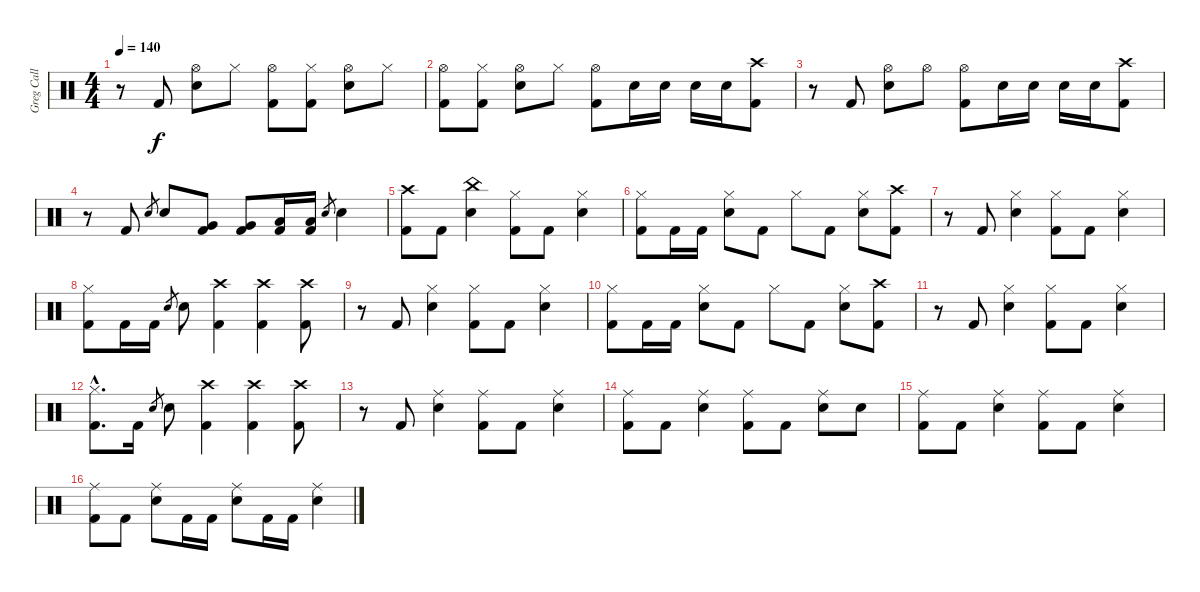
\track ("Greg Call (Drums)" "Greg Call ") {instrument percussion}
\staff {score}
\articulation defaults
\ts (4 4)
\tempo 140
\clef neutral
\ks c
r.8{dy f} "Kick (hit) 2".8 ("Hi-Hat (open)" "Snare (hit) 2").8 "Hi-Hat (closed)".8 ("Hi-Hat (open)" "Kick (hit) 2").8 ("Hi-Hat (closed)" "Kick (hit) 2").8 ("Hi-Hat (open)" "Snare (hit) 2").8 "Hi-Hat (closed)".8 |
("Hi-Hat (open)" "Kick (hit) 2").8 ("Hi-Hat (closed)" "Kick (hit) 2").8 ("Hi-Hat (open)" "Snare (hit) 2").8 "Hi-Hat (closed)".8 ("Hi-Hat (open)" "Kick (hit) 2").8 "Snare (hit) 2".16 "Snare (hit) 2".16 "Snare (hit) 2".16 "Snare (hit) 2".16 ("Crash high (hit)" "Kick (hit) 2").8 |
r.8 "Kick (hit) 2".8 ("Hi-Hat (open)" "Snare (hit) 2").8 "Hi-Hat (open)".8 ("Hi-Hat (open)" "Kick (hit) 2").8 "Snare (hit) 2".16 "Snare (hit) 2".16 "Snare (hit) 2".16 "Snare (hit) 2".16 ("Crash high (hit)" "Kick (hit) 2").8 |
r.8 "Kick (hit) 2".8 "Snare (hit) 2".8{gr} "Snare (hit) 2".8 ("Very Low Tom (hit)" "Kick (hit) 2").8 ("Very Low Tom (hit)" "Kick (hit) 2").8 ("Low Floor Tom (hit)" "Kick (hit) 2").16 ("Low Floor Tom (hit)" "Kick (hit) 2").16 "Snare (hit) 2".8{gr} "Snare (hit) 2".4 |
("Crash high (hit)" "Kick (hit) 2").8 "Kick (hit) 2".8 ("China (hit)" "Snare (hit) 2").4 ("Hi-Hat (closed)" "Kick (hit) 2").8 "Kick (hit) 2".8 ("Hi-Hat (closed)" "Snare (hit) 2").4 |
("Hi-Hat (closed)" "Kick (hit) 2").8 "Kick (hit) 2".16 "Kick (hit) 2".16 ("Hi-Hat (closed)" "Snare (hit) 2").8 "Kick (hit) 2".8 "Hi-Hat (closed)".8 "Kick (hit) 2".8 ("Hi-Hat (closed)" "Snare (hit) 2").8 ("Crash high (hit)" "Kick (hit) 2").8 |
r.8 "Kick (hit) 2".8 ("Hi-Hat (closed)" "Snare (hit) 2").4 ("Hi-Hat (closed)" "Kick (hit) 2").8 "Kick (hit) 2".8 ("Hi-Hat (closed)" "Snare (hit) 2").4 |
("Hi-Hat (closed)" "Kick (hit) 2").8 "Kick (hit) 2".16 "Kick (hit) 2".16 "Snare (hit) 2".8{gr} "Snare (hit) 2".8 ("Crash high (hit)" "Kick (hit) 2").4 ("Crash high (hit)" "Kick (hit) 2").4 ("Crash high (hit)" "Kick (hit) 2").8 |
r.8 "Kick (hit) 2".8 ("Hi-Hat (closed)" "Snare (hit) 2").4 ("Hi-Hat (closed)" "Kick (hit) 2").8 "Kick (hit) 2".8 ("Hi-Hat (closed)" "Snare (hit) 2").4 |
("Hi-Hat (closed)" "Kick (hit) 2").8 "Kick (hit) 2".16 "Kick (hit) 2".16 ("Hi-Hat (closed)" "Snare (hit) 2").8 "Kick (hit) 2".8 "Hi-Hat (closed)".8 "Kick (hit) 2".8 ("Hi-Hat (closed)" "Snare (hit) 2").8 ("Crash high (hit)" "Kick (hit) 2").8 |
r.8 "Kick (hit) 2".8 ("Hi-Hat (closed)" "Snare (hit) 2").4 ("Hi-Hat (closed)" "Kick (hit) 2").8 "Kick (hit) 2".8 ("Hi-Hat (closed)" "Snare (hit) 2").4 |
("Hi-Hat (closed)"{hac} "Kick (hit) 2"{hac}).8{d} "Kick (hit) 2".16 "Snare (hit) 2".8{gr} "Snare (hit) 2".8 ("Crash high (hit)" "Kick (hit) 2").4 ("Crash high (hit)" "Kick (hit) 2").4 ("Crash high (hit)" "Kick (hit) 2").8 |
r.8 "Kick (hit) 2".8 ("Ride (middle)" "Snare (hit) 2").4 ("Ride (middle)" "Kick (hit) 2").8 "Kick (hit) 2".8 ("Ride (middle)" "Snare (hit) 2").4 |
("Ride (middle)" "Kick (hit) 2").8 "Kick (hit) 2".8 ("Ride (middle)" "Snare (hit) 2").4 ("Ride (middle)" "Kick (hit) 2").8 "Kick (hit) 2".8 ("Ride (middle)" "Snare (hit) 2").8 "Snare (hit) 2".8 |
("Ride (middle)" "Kick (hit) 2").8 "Kick (hit) 2".8 ("Ride (middle)" "Snare (hit) 2").4 ("Ride (middle)" "Kick (hit) 2").8 "Kick (hit) 2".8 ("Ride (middle)" "Snare (hit) 2").4 |
("Ride (middle)" "Kick (hit) 2").8 "Kick (hit) 2".8 ("Ride (middle)" "Snare (hit) 2").8 "Kick (hit) 2".16 "Kick (hit) 2".16 ("Ride (middle)" "Snare (hit) 2").8 "Kick (hit) 2".16 "Kick (hit) 2".16 ("Ride (middle)" "Snare (hit) 2").4
